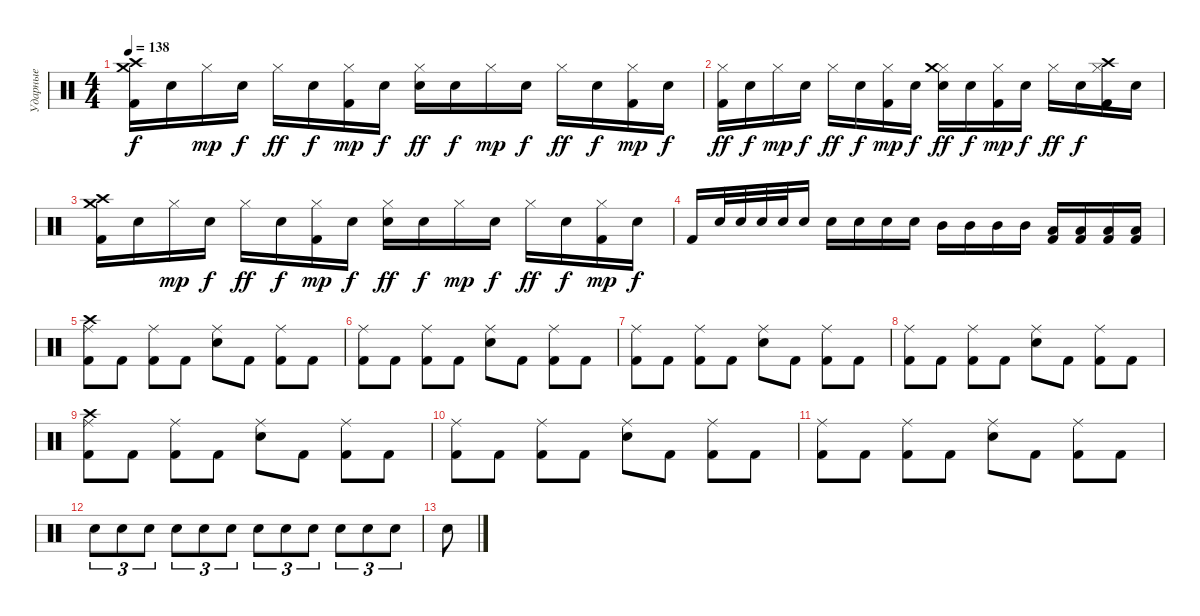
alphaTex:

\track ("Ударные" "Ударные") {instrument percussion}
\staff {score}
\articulation defaults
\ts (4 4)
\tempo 138
\clef neutral
\ks c
("Crash high (hit)" "Crash medium (hit)" "Kick (hit) 2").16{dy f} "Snare (hit)".16 "Hi-Hat (closed)".16{dy mp} "Snare (hit)".16{dy f} "Hi-Hat (closed)".16{dy ff} "Snare (hit)".16{dy f} ("Hi-Hat (closed)" "Kick (hit) 2").16{dy mp} "Snare (hit)".16{dy f} ("Hi-Hat (closed)" "Snare (hit) 2").16{dy ff} "Snare (hit)".16{dy f} "Hi-Hat (closed)".16{dy mp} "Snare (hit)".16{dy f} "Hi-Hat (closed)".16{dy ff} "Snare (hit)".16{dy f} ("Hi-Hat (closed)" "Kick (hit) 2").16{dy mp} "Snare (hit)".16{dy f} |
("Hi-Hat (closed)" "Kick (hit) 2").16{dy ff} "Snare (hit)".16{dy f} "Hi-Hat (closed)".16{dy mp} "Snare (hit)".16{dy f} "Hi-Hat (closed)".16{dy ff} "Snare (hit)".16{dy f} ("Hi-Hat (closed)" "Kick (hit) 2").16{dy mp} "Snare (hit)".16{dy f} ("Hi-Hat (closed)" "Crash medium (hit)" "Snare (hit) 2").16{dy ff} "Snare (hit)".16{dy f} ("Hi-Hat (closed)" "Kick (hit) 2").16{dy mp} "Snare (hit)".16{dy f} "Hi-Hat (closed)".16{dy ff} "Snare (hit)".16{dy f} ("Hi-Hat (closed)" "Crash high (hit)" "Kick (hit) 2").16 "Snare (hit)".16 |
("Crash high (hit)" "Crash medium (hit)" "Kick (hit) 2").16 "Snare (hit)".16 "Hi-Hat (closed)".16{dy mp} "Snare (hit)".16{dy f} "Hi-Hat (closed)".16{dy ff} "Snare (hit)".16{dy f} ("Hi-Hat (closed)" "Kick (hit) 2").16{dy mp} "Snare (hit)".16{dy f} ("Hi-Hat (closed)" "Snare (hit) 2").16{dy ff} "Snare (hit)".16{dy f} "Hi-Hat (closed)".16{dy mp} "Snare (hit)".16{dy f} "Hi-Hat (closed)".16{dy ff} "Snare (hit)".16{dy f} ("Hi-Hat (closed)" "Kick (hit) 2").16{dy mp} "Snare (hit)".16{dy f} |
"Kick (hit) 2".16 "Snare (hit)".32 "Snare (hit) 2".32 "Snare (hit) 2".32 "Snare (hit) 2".32 "Snare (hit) 2".16 "Snare (hit) 2".16 "Snare (hit) 2".16 "Snare (hit) 2".16 "Snare (hit) 2".16 "Mid Tom (hit)".16 "Mid Tom (hit)".16 "Mid Tom (hit)".16 "Mid Tom (hit)".16 ("Low Tom (hit)" "Kick (hit) 2").16 ("Low Tom (hit)" "Kick (hit) 2").16 ("Low Tom (hit)" "Kick (hit) 2").16 ("Low Tom (hit)" "Kick (hit) 2").16 |
("Ride (middle)" "Crash high (hit)" "Kick (hit) 2").8 "Kick (hit) 2".8 ("Ride (middle)" "Kick (hit) 2").8 "Kick (hit) 2".8 ("Ride (middle)" "Snare (hit) 2").8 "Kick (hit) 2".8 ("Ride (middle)" "Kick (hit) 2").8 "Kick (hit) 2".8 |
("Ride (middle)" "Kick (hit) 2").8 "Kick (hit) 2".8 ("Ride (middle)" "Kick (hit) 2").8 "Kick (hit) 2".8 ("Ride (middle)" "Snare (hit) 2").8 "Kick (hit) 2".8 ("Ride (middle)" "Kick (hit) 2").8 "Kick (hit) 2".8 |
("Ride (middle)" "Kick (hit) 2").8 "Kick (hit) 2".8 ("Ride (middle)" "Kick (hit) 2").8 "Kick (hit) 2".8 ("Ride (middle)" "Snare (hit) 2").8 "Kick (hit) 2".8 ("Ride (middle)" "Kick (hit) 2").8 "Kick (hit) 2".8 |
("Ride (middle)" "Kick (hit) 2").8 "Kick (hit) 2".8 ("Ride (middle)" "Kick (hit) 2").8 "Kick (hit) 2".8 ("Ride (middle)" "Snare (hit) 2").8 "Kick (hit) 2".8 ("Ride (middle)" "Kick (hit) 2").8 "Kick (hit) 2".8 |
("Ride (middle)" "Crash high (hit)" "Kick (hit) 2").8 "Kick (hit) 2".8 ("Ride (middle)" "Kick (hit) 2").8 "Kick (hit) 2".8 ("Ride (middle)" "Snare (hit) 2").8 "Kick (hit) 2".8 ("Ride (middle)" "Kick (hit) 2").8 "Kick (hit) 2".8 |
("Ride (middle)" "Kick (hit) 2").8 "Kick (hit) 2".8 ("Ride (middle)" "Kick (hit) 2").8 "Kick (hit) 2".8 ("Ride (middle)" "Snare (hit) 2").8 "Kick (hit) 2".8 ("Ride (middle)" "Kick (hit) 2").8 "Kick (hit) 2".8 |
("Ride (middle)" "Kick (hit) 2").8 "Kick (hit) 2".8 ("Ride (middle)" "Kick (hit) 2").8 "Kick (hit) 2".8 ("Ride (middle)" "Snare (hit) 2").8 "Kick (hit) 2".8 ("Ride (middle)" "Kick (hit) 2").8 "Kick (hit) 2".8 |
"Snare (hit) 2".8{tu (3 2)} "Snare (hit) 2".8{tu (3 2)} "Snare (hit) 2".8{tu (3 2)} "Snare (hit) 2".8{tu (3 2)} "Snare (hit) 2".8{tu (3 2)} "Snare (hit) 2".8{tu (3 2)} "Snare (hit) 2".8{tu (3 2)} "Snare (hit) 2".8{tu (3 2)} "Snare (hit) 2".8{tu (3 2)} "Snare (hit) 2".8{tu (3 2)} "Snare (hit) 2".8{tu (3 2)} "Snare (hit) 2".8{tu (3 2)} |
"Snare (hit) 2".8
